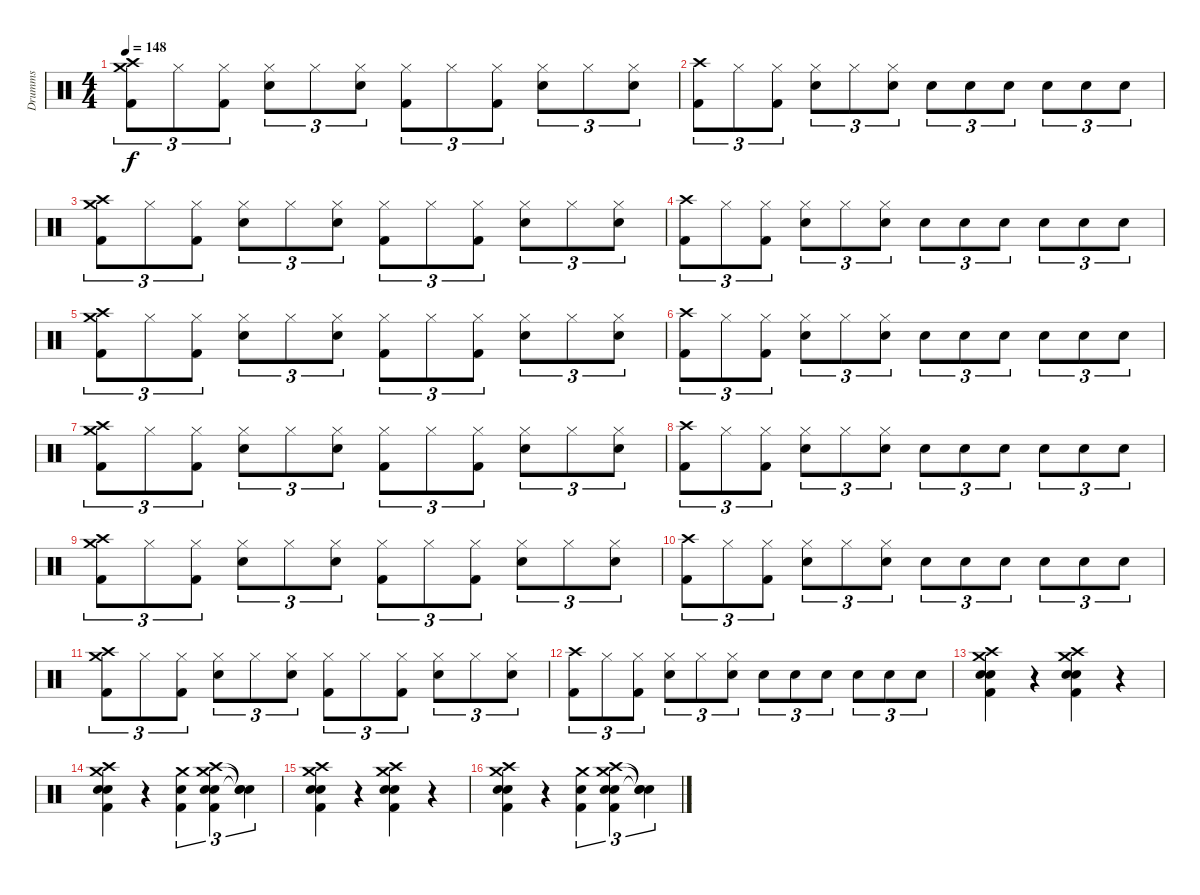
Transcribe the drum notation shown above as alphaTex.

\track ("Drumms" "Drumms") {instrument percussion}
\staff {score}
\articulation defaults
\ts (4 4)
\tempo 148
\clef neutral
\ks c
("Crash medium (hit)" "Crash high (hit)" "Kick (hit) 2").8{tu (3 2) dy f} "Hi-Hat (closed)".8{tu (3 2)} ("Hi-Hat (closed)" "Kick (hit) 2").8{tu (3 2)} ("Hi-Hat (closed)" "Snare (hit) 2").8{tu (3 2)} "Hi-Hat (closed)".8{tu (3 2)} ("Hi-Hat (closed)" "Snare (hit) 2").8{tu (3 2)} ("Hi-Hat (closed)" "Kick (hit) 2").8{tu (3 2)} "Hi-Hat (closed)".8{tu (3 2)} ("Hi-Hat (closed)" "Kick (hit) 2").8{tu (3 2)} ("Hi-Hat (closed)" "Snare (hit) 2").8{tu (3 2)} "Hi-Hat (closed)".8{tu (3 2)} ("Hi-Hat (closed)" "Snare (hit) 2").8{tu (3 2)} |
("Crash high (hit)" "Kick (hit) 2").8{tu (3 2)} "Hi-Hat (closed)".8{tu (3 2)} ("Hi-Hat (closed)" "Kick (hit) 2").8{tu (3 2)} ("Hi-Hat (closed)" "Snare (hit) 2").8{tu (3 2)} "Hi-Hat (closed)".8{tu (3 2)} ("Hi-Hat (closed)" "Snare (hit) 2").8{tu (3 2)} "Snare (hit) 2".8{tu (3 2)} "Snare (hit) 2".8{tu (3 2)} "Snare (hit) 2".8{tu (3 2)} "Snare (hit) 2".8{tu (3 2)} "Snare (hit) 2".8{tu (3 2)} "Snare (hit) 2".8{tu (3 2)} |
("Crash medium (hit)" "Crash high (hit)" "Kick (hit) 2").8{tu (3 2)} "Hi-Hat (closed)".8{tu (3 2)} ("Hi-Hat (closed)" "Kick (hit) 2").8{tu (3 2)} ("Hi-Hat (closed)" "Snare (hit) 2").8{tu (3 2)} "Hi-Hat (closed)".8{tu (3 2)} ("Hi-Hat (closed)" "Snare (hit) 2").8{tu (3 2)} ("Hi-Hat (closed)" "Kick (hit) 2").8{tu (3 2)} "Hi-Hat (closed)".8{tu (3 2)} ("Hi-Hat (closed)" "Kick (hit) 2").8{tu (3 2)} ("Hi-Hat (closed)" "Snare (hit) 2").8{tu (3 2)} "Hi-Hat (closed)".8{tu (3 2)} ("Hi-Hat (closed)" "Snare (hit) 2").8{tu (3 2)} |
("Crash high (hit)" "Kick (hit) 2").8{tu (3 2)} "Hi-Hat (closed)".8{tu (3 2)} ("Hi-Hat (closed)" "Kick (hit) 2").8{tu (3 2)} ("Hi-Hat (closed)" "Snare (hit) 2").8{tu (3 2)} "Hi-Hat (closed)".8{tu (3 2)} ("Hi-Hat (closed)" "Snare (hit) 2").8{tu (3 2)} "Snare (hit) 2".8{tu (3 2)} "Snare (hit) 2".8{tu (3 2)} "Snare (hit) 2".8{tu (3 2)} "Snare (hit) 2".8{tu (3 2)} "Snare (hit) 2".8{tu (3 2)} "Snare (hit) 2".8{tu (3 2)} |
("Crash medium (hit)" "Crash high (hit)" "Kick (hit) 2").8{tu (3 2)} "Hi-Hat (closed)".8{tu (3 2)} ("Hi-Hat (closed)" "Kick (hit) 2").8{tu (3 2)} ("Hi-Hat (closed)" "Snare (hit) 2").8{tu (3 2)} "Hi-Hat (closed)".8{tu (3 2)} ("Hi-Hat (closed)" "Snare (hit) 2").8{tu (3 2)} ("Hi-Hat (closed)" "Kick (hit) 2").8{tu (3 2)} "Hi-Hat (closed)".8{tu (3 2)} ("Hi-Hat (closed)" "Kick (hit) 2").8{tu (3 2)} ("Hi-Hat (closed)" "Snare (hit) 2").8{tu (3 2)} "Hi-Hat (closed)".8{tu (3 2)} ("Hi-Hat (closed)" "Snare (hit) 2").8{tu (3 2)} |
("Crash high (hit)" "Kick (hit) 2").8{tu (3 2)} "Hi-Hat (closed)".8{tu (3 2)} ("Hi-Hat (closed)" "Kick (hit) 2").8{tu (3 2)} ("Hi-Hat (closed)" "Snare (hit) 2").8{tu (3 2)} "Hi-Hat (closed)".8{tu (3 2)} ("Hi-Hat (closed)" "Snare (hit) 2").8{tu (3 2)} "Snare (hit) 2".8{tu (3 2)} "Snare (hit) 2".8{tu (3 2)} "Snare (hit) 2".8{tu (3 2)} "Snare (hit) 2".8{tu (3 2)} "Snare (hit) 2".8{tu (3 2)} "Snare (hit) 2".8{tu (3 2)} |
("Crash medium (hit)" "Crash high (hit)" "Kick (hit) 2").8{tu (3 2)} "Hi-Hat (closed)".8{tu (3 2)} ("Hi-Hat (closed)" "Kick (hit) 2").8{tu (3 2)} ("Hi-Hat (closed)" "Snare (hit) 2").8{tu (3 2)} "Hi-Hat (closed)".8{tu (3 2)} ("Hi-Hat (closed)" "Snare (hit) 2").8{tu (3 2)} ("Hi-Hat (closed)" "Kick (hit) 2").8{tu (3 2)} "Hi-Hat (closed)".8{tu (3 2)} ("Hi-Hat (closed)" "Kick (hit) 2").8{tu (3 2)} ("Hi-Hat (closed)" "Snare (hit) 2").8{tu (3 2)} "Hi-Hat (closed)".8{tu (3 2)} ("Hi-Hat (closed)" "Snare (hit) 2").8{tu (3 2)} |
("Crash high (hit)" "Kick (hit) 2").8{tu (3 2)} "Hi-Hat (closed)".8{tu (3 2)} ("Hi-Hat (closed)" "Kick (hit) 2").8{tu (3 2)} ("Hi-Hat (closed)" "Snare (hit) 2").8{tu (3 2)} "Hi-Hat (closed)".8{tu (3 2)} ("Hi-Hat (closed)" "Snare (hit) 2").8{tu (3 2)} "Snare (hit) 2".8{tu (3 2)} "Snare (hit) 2".8{tu (3 2)} "Snare (hit) 2".8{tu (3 2)} "Snare (hit) 2".8{tu (3 2)} "Snare (hit) 2".8{tu (3 2)} "Snare (hit) 2".8{tu (3 2)} |
("Crash medium (hit)" "Crash high (hit)" "Kick (hit) 2").8{tu (3 2)} "Hi-Hat (closed)".8{tu (3 2)} ("Hi-Hat (closed)" "Kick (hit) 2").8{tu (3 2)} ("Hi-Hat (closed)" "Snare (hit) 2").8{tu (3 2)} "Hi-Hat (closed)".8{tu (3 2)} ("Hi-Hat (closed)" "Snare (hit) 2").8{tu (3 2)} ("Hi-Hat (closed)" "Kick (hit) 2").8{tu (3 2)} "Hi-Hat (closed)".8{tu (3 2)} ("Hi-Hat (closed)" "Kick (hit) 2").8{tu (3 2)} ("Hi-Hat (closed)" "Snare (hit) 2").8{tu (3 2)} "Hi-Hat (closed)".8{tu (3 2)} ("Hi-Hat (closed)" "Snare (hit) 2").8{tu (3 2)} |
("Crash high (hit)" "Kick (hit) 2").8{tu (3 2)} "Hi-Hat (closed)".8{tu (3 2)} ("Hi-Hat (closed)" "Kick (hit) 2").8{tu (3 2)} ("Hi-Hat (closed)" "Snare (hit) 2").8{tu (3 2)} "Hi-Hat (closed)".8{tu (3 2)} ("Hi-Hat (closed)" "Snare (hit) 2").8{tu (3 2)} "Snare (hit) 2".8{tu (3 2)} "Snare (hit) 2".8{tu (3 2)} "Snare (hit) 2".8{tu (3 2)} "Snare (hit) 2".8{tu (3 2)} "Snare (hit) 2".8{tu (3 2)} "Snare (hit) 2".8{tu (3 2)} |
("Crash medium (hit)" "Crash high (hit)" "Kick (hit) 2").8{tu (3 2)} "Hi-Hat (closed)".8{tu (3 2)} ("Hi-Hat (closed)" "Kick (hit) 2").8{tu (3 2)} ("Hi-Hat (closed)" "Snare (hit) 2").8{tu (3 2)} "Hi-Hat (closed)".8{tu (3 2)} ("Hi-Hat (closed)" "Snare (hit) 2").8{tu (3 2)} ("Hi-Hat (closed)" "Kick (hit) 2").8{tu (3 2)} "Hi-Hat (closed)".8{tu (3 2)} ("Hi-Hat (closed)" "Kick (hit) 2").8{tu (3 2)} ("Hi-Hat (closed)" "Snare (hit) 2").8{tu (3 2)} "Hi-Hat (closed)".8{tu (3 2)} ("Hi-Hat (closed)" "Snare (hit) 2").8{tu (3 2)} |
("Crash high (hit)" "Kick (hit) 2").8{tu (3 2)} "Hi-Hat (closed)".8{tu (3 2)} ("Hi-Hat (closed)" "Kick (hit) 2").8{tu (3 2)} ("Hi-Hat (closed)" "Snare (hit) 2").8{tu (3 2)} "Hi-Hat (closed)".8{tu (3 2)} ("Hi-Hat (closed)" "Snare (hit) 2").8{tu (3 2)} "Snare (hit) 2".8{tu (3 2)} "Snare (hit) 2".8{tu (3 2)} "Snare (hit) 2".8{tu (3 2)} "Snare (hit) 2".8{tu (3 2)} "Snare (hit) 2".8{tu (3 2)} "Snare (hit) 2".8{tu (3 2)} |
("Crash high (hit)" "Crash medium (hit)" "Snare (hit) 2" "Kick (hit) 2" "Snare (hit) 2").4 r.4 ("Crash high (hit)" "Crash medium (hit)" "Snare (hit) 2" "Kick (hit) 2" "Snare (hit) 2").4 r.4 |
("Crash high (hit)" "Crash medium (hit)" "Snare (hit) 2" "Kick (hit) 2" "Snare (hit) 2").4 r.4 ("Crash medium (hit)" "Kick (hit) 2" "Snare (hit) 2").4{tu (3 2)} ("Crash high (hit)" "Crash medium (hit)" "Snare (hit) 2" "Kick (hit) 2" "Snare (hit) 2").4{tu (3 2)} ("Snare (hit)"{t} "Snare (hit)"{t} "Snare (hit)"{t}).4{tu (3 2)} |
("Crash high (hit)" "Crash medium (hit)" "Snare (hit) 2" "Kick (hit) 2" "Snare (hit) 2").4 r.4 ("Crash high (hit)" "Crash medium (hit)" "Snare (hit) 2" "Kick (hit) 2" "Snare (hit) 2").4 r.4 |
("Crash high (hit)" "Crash medium (hit)" "Snare (hit) 2" "Kick (hit) 2" "Snare (hit) 2").4 r.4 ("Crash medium (hit)" "Kick (hit) 2" "Snare (hit) 2").4{tu (3 2)} ("Crash high (hit)" "Crash medium (hit)" "Snare (hit) 2" "Kick (hit) 2" "Snare (hit) 2").4{tu (3 2)} ("Snare (hit)"{t} "Snare (hit)"{t} "Snare (hit)"{t}).4{tu (3 2)}
